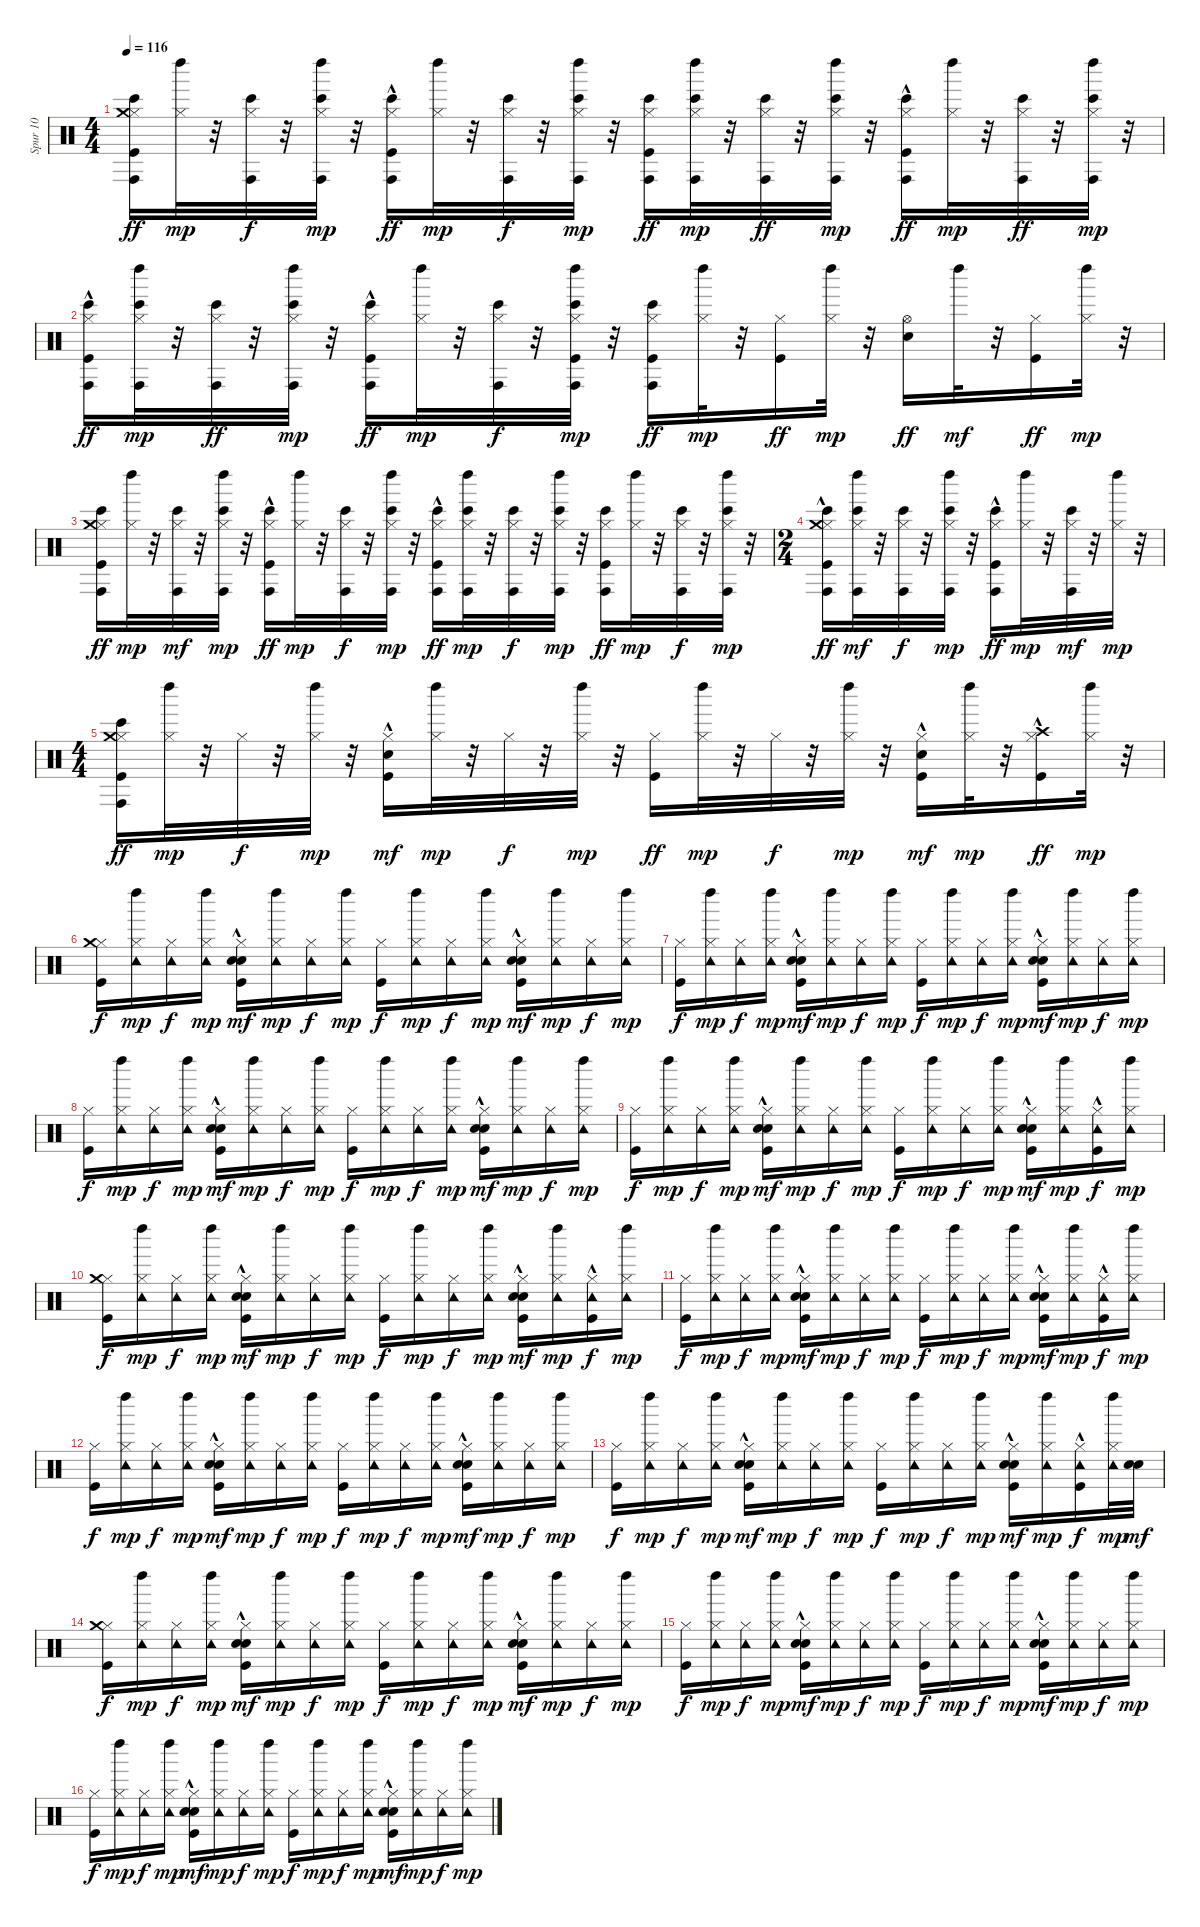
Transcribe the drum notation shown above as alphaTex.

\track ("Spur 10" "Spur 10") {instrument percussion}
\staff {score}
\articulation defaults
\ts (4 4)
\tempo 116
\clef neutral
\ks c
("Kick (hit)" "Conga high (hit)" "Hi-Hat (closed)" "Bongo High (hit)" "Crash medium (hit)").16{dy ff} ("Left Maraca (hit)" "Hi-Hat (closed)").32{dy mp} r.32 ("Conga high (hit)" "Bongo High (hit)" "Hi-Hat (closed)").32{dy f} r.32 ("Conga high (hit)" "Bongo High (hit)" "Left Maraca (hit)" "Hi-Hat (closed)").32{dy mp} r.32 ("Kick (hit)"{hac} "Hi-Hat (closed)" "Bongo High (hit)" "Conga high (hit)").16{dy ff} ("Left Maraca (hit)" "Hi-Hat (closed)").32{dy mp} r.32 ("Conga high (hit)" "Bongo High (hit)" "Hi-Hat (closed)").32{dy f} r.32 ("Conga high (hit)" "Bongo High (hit)" "Left Maraca (hit)" "Hi-Hat (closed)").32{dy mp} r.32 ("Kick (hit)" "Conga high (hit)" "Bongo High (hit)" "Hi-Hat (closed)").16{dy ff} ("Bongo High (hit)" "Conga high (hit)" "Left Maraca (hit)" "Hi-Hat (closed)").32{dy mp} r.32 ("Conga high (hit)" "Bongo High (hit)" "Hi-Hat (closed)").32{dy ff} r.32 ("Conga high (hit)" "Bongo High (hit)" "Left Maraca (hit)" "Hi-Hat (closed)").32{dy mp} r.32 ("Kick (hit)"{hac} "Bongo High (hit)" "Conga high (hit)" "Hi-Hat (closed)").16{dy ff} ("Left Maraca (hit)" "Hi-Hat (closed)").32{dy mp} r.32 ("Conga high (hit)" "Bongo High (hit)" "Hi-Hat (closed)").32{dy ff} r.32 ("Bongo High (hit)" "Conga high (hit)" "Left Maraca (hit)" "Hi-Hat (closed)").32{dy mp} r.32 |
("Bongo High (hit)" "Conga high (hit)" "Kick (hit)"{hac} "Hi-Hat (closed)").16{dy ff} ("Conga high (hit)" "Bongo High (hit)" "Left Maraca (hit)" "Hi-Hat (closed)").32{dy mp} r.32 ("Bongo High (hit)" "Conga high (hit)" "Hi-Hat (closed)").32{dy ff} r.32 ("Bongo High (hit)" "Conga high (hit)" "Left Maraca (hit)" "Hi-Hat (closed)").32{dy mp} r.32 ("Bongo High (hit)" "Conga high (hit)" "Kick (hit)"{hac} "Hi-Hat (closed)").16{dy ff} ("Left Maraca (hit)" "Hi-Hat (closed)").32{dy mp} r.32 ("Conga high (hit)" "Bongo High (hit)" "Hi-Hat (closed)").32{dy f} r.32 ("Kick (hit)" "Conga high (hit)" "Bongo High (hit)" "Left Maraca (hit)" "Hi-Hat (closed)").32{dy mp} r.32 ("Kick (hit)" "Hi-Hat (closed)" "Bongo High (hit)" "Conga high (hit)").16{dy ff} ("Left Maraca (hit)" "Hi-Hat (closed)").32{dy mp} r.32 ("Kick (hit)" "Hi-Hat (closed)").16{dy ff} ("Left Maraca (hit)" "Hi-Hat (closed)").32{dy mp} r.32 ("Snare (hit) 2" "Hi-Hat (open)").16{dy ff} "Left Maraca (hit)".32{dy mf} r.32 ("Kick (hit)" "Hi-Hat (closed)").16{dy ff} ("Left Maraca (hit)" "Hi-Hat (closed)").32{dy mp} r.32 |
("Kick (hit)" "Conga high (hit)" "Bongo High (hit)" "Hi-Hat (closed)" "Crash medium (hit)").16{dy ff} ("Left Maraca (hit)" "Hi-Hat (closed)").32{dy mp} r.32 ("Hi-Hat (closed)" "Conga high (hit)" "Bongo High (hit)").32{dy mf} r.32 ("Left Maraca (hit)" "Hi-Hat (closed)" "Bongo High (hit)" "Conga high (hit)").32{dy mp} r.32 ("Kick (hit)"{hac} "Hi-Hat (closed)" "Conga high (hit)" "Bongo High (hit)").16{dy ff} ("Left Maraca (hit)" "Hi-Hat (closed)").32{dy mp} r.32 ("Conga high (hit)" "Bongo High (hit)" "Hi-Hat (closed)").32{dy f} r.32 ("Conga high (hit)" "Bongo High (hit)" "Left Maraca (hit)" "Hi-Hat (closed)").32{dy mp} r.32 ("Bongo High (hit)" "Conga high (hit)" "Kick (hit)"{hac} "Hi-Hat (closed)").16{dy ff} ("Conga high (hit)" "Bongo High (hit)" "Left Maraca (hit)" "Hi-Hat (closed)").32{dy mp} r.32 ("Conga high (hit)" "Bongo High (hit)" "Hi-Hat (closed)").32{dy f} r.32 ("Bongo High (hit)" "Conga high (hit)" "Left Maraca (hit)" "Hi-Hat (closed)").32{dy mp} r.32 ("Kick (hit)" "Conga high (hit)" "Bongo High (hit)" "Hi-Hat (closed)").16{dy ff} ("Left Maraca (hit)" "Hi-Hat (closed)").32{dy mp} r.32 ("Hi-Hat (closed)" "Conga high (hit)" "Bongo High (hit)").32{dy f} r.32 ("Left Maraca (hit)" "Hi-Hat (closed)" "Conga high (hit)" "Bongo High (hit)").32{dy mp} r.32 |
\ts (2 4)
("Kick (hit)"{hac} "Hi-Hat (closed)" "Crash medium (hit)" "Conga high (hit)" "Bongo High (hit)").16{dy ff} ("Left Maraca (hit)" "Hi-Hat (closed)" "Conga high (hit)" "Bongo High (hit)").32{dy mf} r.32 ("Hi-Hat (closed)" "Bongo High (hit)" "Conga high (hit)").32{dy f} r.32 ("Left Maraca (hit)" "Hi-Hat (closed)" "Conga high (hit)" "Bongo High (hit)").32{dy mp} r.32 ("Kick (hit)"{hac} "Hi-Hat (closed)" "Conga high (hit)" "Bongo High (hit)").16{dy ff} ("Left Maraca (hit)" "Hi-Hat (closed)").32{dy mp} r.32 ("Hi-Hat (closed)" "Conga high (hit)" "Bongo High (hit)").32{dy mf} r.32 ("Left Maraca (hit)" "Hi-Hat (closed)").32{dy mp} r.32 |
\ts (4 4)
("Conga high (hit)" "Bongo High (hit)" "Kick (hit)" "Hi-Hat (closed)" "Crash medium (hit)").16{dy ff} ("Left Maraca (hit)" "Hi-Hat (closed)").32{dy mp} r.32 "Hi-Hat (closed)".32{dy f} r.32 ("Left Maraca (hit)" "Hi-Hat (closed)").32{dy mp} r.32 ("Kick (hit)"{hac} "Snare (hit) 2"{hac} "Hi-Hat (closed)").16{dy mf} ("Left Maraca (hit)" "Hi-Hat (closed)").32{dy mp} r.32 "Hi-Hat (closed)".32{dy f} r.32 ("Left Maraca (hit)" "Hi-Hat (closed)").32{dy mp} r.32 ("Kick (hit)" "Hi-Hat (closed)").16{dy ff} ("Left Maraca (hit)" "Hi-Hat (closed)").32{dy mp} r.32 "Hi-Hat (closed)".32{dy f} r.32 ("Left Maraca (hit)" "Hi-Hat (closed)").32{dy mp} r.32 ("Kick (hit)"{hac} "Snare (hit) 2"{hac} "Hi-Hat (closed)").16{dy mf} ("Left Maraca (hit)" "Hi-Hat (closed)").32{dy mp} r.32 ("Kick (hit)"{hac} "Hi-Hat (closed)" "Crash high (hit)").16{dy ff} ("Left Maraca (hit)" "Hi-Hat (closed)").32{dy mp} r.32 |
("Kick (hit)" "Hi-Hat (closed)" "Crash medium (hit)").16{dy f} ("Left Maraca (hit)" "Hi-Hat (closed)" "Tambourine (hit)").16{dy mp} ("Hi-Hat (closed)" "Tambourine (hit)").16{dy f} ("Left Maraca (hit)" "Hi-Hat (closed)" "Tambourine (hit)").16{dy mp} ("Kick (hit)"{hac} "Snare (hit) 2"{hac} "Hi-Hat (closed)" "Hand Clap (hit)"{hac}).16{dy mf} ("Left Maraca (hit)" "Hi-Hat (closed)" "Tambourine (hit)").16{dy mp} ("Hi-Hat (closed)" "Tambourine (hit)").16{dy f} ("Left Maraca (hit)" "Hi-Hat (closed)" "Tambourine (hit)").16{dy mp} ("Kick (hit)" "Hi-Hat (closed)").16{dy f} ("Left Maraca (hit)" "Hi-Hat (closed)" "Tambourine (hit)").16{dy mp} ("Hi-Hat (closed)" "Tambourine (hit)").16{dy f} ("Left Maraca (hit)" "Hi-Hat (closed)" "Tambourine (hit)").16{dy mp} ("Kick (hit)"{hac} "Snare (hit) 2"{hac} "Hi-Hat (closed)" "Hand Clap (hit)"{hac}).16{dy mf} ("Left Maraca (hit)" "Hi-Hat (closed)" "Tambourine (hit)").16{dy mp} ("Hi-Hat (closed)" "Tambourine (hit)").16{dy f} ("Left Maraca (hit)" "Hi-Hat (closed)" "Tambourine (hit)").16{dy mp} |
("Kick (hit)" "Hi-Hat (closed)").16{dy f} ("Left Maraca (hit)" "Hi-Hat (closed)" "Tambourine (hit)").16{dy mp} ("Hi-Hat (closed)" "Tambourine (hit)").16{dy f} ("Left Maraca (hit)" "Hi-Hat (closed)" "Tambourine (hit)").16{dy mp} ("Kick (hit)"{hac} "Snare (hit) 2"{hac} "Hi-Hat (closed)" "Hand Clap (hit)"{hac}).16{dy mf} ("Left Maraca (hit)" "Hi-Hat (closed)" "Tambourine (hit)").16{dy mp} ("Hi-Hat (closed)" "Tambourine (hit)").16{dy f} ("Left Maraca (hit)" "Hi-Hat (closed)" "Tambourine (hit)").16{dy mp} ("Kick (hit)" "Hi-Hat (closed)").16{dy f} ("Left Maraca (hit)" "Hi-Hat (closed)" "Tambourine (hit)").16{dy mp} ("Hi-Hat (closed)" "Tambourine (hit)").16{dy f} ("Left Maraca (hit)" "Hi-Hat (closed)" "Tambourine (hit)").16{dy mp} ("Kick (hit)"{hac} "Snare (hit) 2"{hac} "Hi-Hat (closed)" "Hand Clap (hit)"{hac}).16{dy mf} ("Left Maraca (hit)" "Hi-Hat (closed)" "Tambourine (hit)").16{dy mp} ("Hi-Hat (closed)" "Tambourine (hit)").16{dy f} ("Left Maraca (hit)" "Hi-Hat (closed)" "Tambourine (hit)").16{dy mp} |
("Kick (hit)" "Hi-Hat (closed)").16{dy f} ("Left Maraca (hit)" "Hi-Hat (closed)" "Tambourine (hit)").16{dy mp} ("Hi-Hat (closed)" "Tambourine (hit)").16{dy f} ("Left Maraca (hit)" "Hi-Hat (closed)" "Tambourine (hit)").16{dy mp} ("Kick (hit)"{hac} "Snare (hit) 2"{hac} "Hi-Hat (closed)" "Hand Clap (hit)"{hac}).16{dy mf} ("Left Maraca (hit)" "Hi-Hat (closed)" "Tambourine (hit)").16{dy mp} ("Hi-Hat (closed)" "Tambourine (hit)").16{dy f} ("Left Maraca (hit)" "Hi-Hat (closed)" "Tambourine (hit)").16{dy mp} ("Kick (hit)" "Hi-Hat (closed)").16{dy f} ("Left Maraca (hit)" "Hi-Hat (closed)" "Tambourine (hit)").16{dy mp} ("Hi-Hat (closed)" "Tambourine (hit)").16{dy f} ("Left Maraca (hit)" "Hi-Hat (closed)" "Tambourine (hit)").16{dy mp} ("Kick (hit)"{hac} "Snare (hit) 2"{hac} "Hi-Hat (closed)" "Hand Clap (hit)"{hac}).16{dy mf} ("Left Maraca (hit)" "Hi-Hat (closed)" "Tambourine (hit)").16{dy mp} ("Hi-Hat (closed)" "Tambourine (hit)").16{dy f} ("Left Maraca (hit)" "Hi-Hat (closed)" "Tambourine (hit)").16{dy mp} |
("Kick (hit)" "Hi-Hat (closed)").16{dy f} ("Left Maraca (hit)" "Hi-Hat (closed)" "Tambourine (hit)").16{dy mp} ("Hi-Hat (closed)" "Tambourine (hit)").16{dy f} ("Left Maraca (hit)" "Hi-Hat (closed)" "Tambourine (hit)").16{dy mp} ("Kick (hit)"{hac} "Snare (hit) 2"{hac} "Hi-Hat (closed)" "Hand Clap (hit)"{hac}).16{dy mf} ("Left Maraca (hit)" "Hi-Hat (closed)" "Tambourine (hit)").16{dy mp} ("Hi-Hat (closed)" "Tambourine (hit)").16{dy f} ("Left Maraca (hit)" "Hi-Hat (closed)" "Tambourine (hit)").16{dy mp} ("Kick (hit)" "Hi-Hat (closed)").16{dy f} ("Left Maraca (hit)" "Hi-Hat (closed)" "Tambourine (hit)").16{dy mp} ("Hi-Hat (closed)" "Tambourine (hit)").16{dy f} ("Left Maraca (hit)" "Hi-Hat (closed)" "Tambourine (hit)").16{dy mp} ("Kick (hit)"{hac} "Snare (hit) 2"{hac} "Hi-Hat (closed)" "Hand Clap (hit)"{hac}).16{dy mf} ("Left Maraca (hit)" "Hi-Hat (closed)" "Tambourine (hit)").16{dy mp} ("Kick (hit)"{hac} "Hi-Hat (closed)" "Tambourine (hit)").16{dy f} ("Left Maraca (hit)" "Hi-Hat (closed)" "Tambourine (hit)").16{dy mp} |
("Kick (hit)" "Hi-Hat (closed)" "Crash medium (hit)").16{dy f} ("Left Maraca (hit)" "Hi-Hat (closed)" "Tambourine (hit)").16{dy mp} ("Hi-Hat (closed)" "Tambourine (hit)").16{dy f} ("Left Maraca (hit)" "Hi-Hat (closed)" "Tambourine (hit)").16{dy mp} ("Kick (hit)"{hac} "Snare (hit) 2"{hac} "Hi-Hat (closed)" "Hand Clap (hit)"{hac}).16{dy mf} ("Left Maraca (hit)" "Hi-Hat (closed)" "Tambourine (hit)").16{dy mp} ("Hi-Hat (closed)" "Tambourine (hit)").16{dy f} ("Left Maraca (hit)" "Hi-Hat (closed)" "Tambourine (hit)").16{dy mp} ("Kick (hit)" "Hi-Hat (closed)").16{dy f} ("Left Maraca (hit)" "Hi-Hat (closed)" "Tambourine (hit)").16{dy mp} ("Hi-Hat (closed)" "Tambourine (hit)").16{dy f} ("Left Maraca (hit)" "Hi-Hat (closed)" "Tambourine (hit)").16{dy mp} ("Kick (hit)"{hac} "Snare (hit) 2"{hac} "Hi-Hat (closed)" "Hand Clap (hit)"{hac}).16{dy mf} ("Left Maraca (hit)" "Hi-Hat (closed)" "Tambourine (hit)").16{dy mp} ("Kick (hit)"{hac} "Hi-Hat (closed)" "Tambourine (hit)").16{dy f} ("Left Maraca (hit)" "Hi-Hat (closed)" "Tambourine (hit)").16{dy mp} |
("Kick (hit)" "Hi-Hat (closed)").16{dy f} ("Left Maraca (hit)" "Hi-Hat (closed)" "Tambourine (hit)").16{dy mp} ("Hi-Hat (closed)" "Tambourine (hit)").16{dy f} ("Left Maraca (hit)" "Hi-Hat (closed)" "Tambourine (hit)").16{dy mp} ("Kick (hit)"{hac} "Snare (hit) 2"{hac} "Hi-Hat (closed)" "Hand Clap (hit)"{hac}).16{dy mf} ("Left Maraca (hit)" "Hi-Hat (closed)" "Tambourine (hit)").16{dy mp} ("Hi-Hat (closed)" "Tambourine (hit)").16{dy f} ("Left Maraca (hit)" "Hi-Hat (closed)" "Tambourine (hit)").16{dy mp} ("Kick (hit)" "Hi-Hat (closed)").16{dy f} ("Left Maraca (hit)" "Hi-Hat (closed)" "Tambourine (hit)").16{dy mp} ("Hi-Hat (closed)" "Tambourine (hit)").16{dy f} ("Left Maraca (hit)" "Hi-Hat (closed)" "Tambourine (hit)").16{dy mp} ("Kick (hit)"{hac} "Snare (hit) 2"{hac} "Hi-Hat (closed)" "Hand Clap (hit)"{hac}).16{dy mf} ("Left Maraca (hit)" "Hi-Hat (closed)" "Tambourine (hit)").16{dy mp} ("Kick (hit)"{hac} "Hi-Hat (closed)" "Tambourine (hit)").16{dy f} ("Left Maraca (hit)" "Hi-Hat (closed)" "Tambourine (hit)").16{dy mp} |
("Kick (hit)" "Hi-Hat (closed)").16{dy f} ("Left Maraca (hit)" "Hi-Hat (closed)" "Tambourine (hit)").16{dy mp} ("Hi-Hat (closed)" "Tambourine (hit)").16{dy f} ("Left Maraca (hit)" "Hi-Hat (closed)" "Tambourine (hit)").16{dy mp} ("Kick (hit)"{hac} "Snare (hit) 2"{hac} "Hi-Hat (closed)" "Hand Clap (hit)"{hac}).16{dy mf} ("Left Maraca (hit)" "Hi-Hat (closed)" "Tambourine (hit)").16{dy mp} ("Hi-Hat (closed)" "Tambourine (hit)").16{dy f} ("Left Maraca (hit)" "Hi-Hat (closed)" "Tambourine (hit)").16{dy mp} ("Kick (hit)" "Hi-Hat (closed)").16{dy f} ("Left Maraca (hit)" "Hi-Hat (closed)" "Tambourine (hit)").16{dy mp} ("Hi-Hat (closed)" "Tambourine (hit)").16{dy f} ("Left Maraca (hit)" "Hi-Hat (closed)" "Tambourine (hit)").16{dy mp} ("Kick (hit)"{hac} "Snare (hit) 2"{hac} "Hi-Hat (closed)" "Hand Clap (hit)"{hac}).16{dy mf} ("Left Maraca (hit)" "Hi-Hat (closed)" "Tambourine (hit)").16{dy mp} ("Hi-Hat (closed)" "Tambourine (hit)").16{dy f} ("Left Maraca (hit)" "Hi-Hat (closed)" "Tambourine (hit)").16{dy mp} |
("Kick (hit)" "Hi-Hat (closed)").16{dy f} ("Left Maraca (hit)" "Hi-Hat (closed)" "Tambourine (hit)").16{dy mp} ("Hi-Hat (closed)" "Tambourine (hit)").16{dy f} ("Left Maraca (hit)" "Hi-Hat (closed)" "Tambourine (hit)").16{dy mp} ("Kick (hit)"{hac} "Snare (hit) 2"{hac} "Hi-Hat (closed)" "Hand Clap (hit)"{hac}).16{dy mf} ("Left Maraca (hit)" "Hi-Hat (closed)" "Tambourine (hit)").16{dy mp} ("Hi-Hat (closed)" "Tambourine (hit)").16{dy f} ("Left Maraca (hit)" "Hi-Hat (closed)" "Tambourine (hit)").16{dy mp} ("Kick (hit)" "Hi-Hat (closed)").16{dy f} ("Left Maraca (hit)" "Hi-Hat (closed)" "Tambourine (hit)").16{dy mp} ("Hi-Hat (closed)" "Tambourine (hit)").16{dy f} ("Left Maraca (hit)" "Hi-Hat (closed)" "Tambourine (hit)").16{dy mp} ("Kick (hit)"{hac} "Snare (hit) 2"{hac} "Hi-Hat (closed)" "Hand Clap (hit)"{hac}).16{dy mf} ("Left Maraca (hit)" "Hi-Hat (closed)" "Tambourine (hit)").16{dy mp} ("Kick (hit)"{hac} "Hi-Hat (closed)" "Tambourine (hit)").16{dy f} ("Left Maraca (hit)" "Hi-Hat (closed)" "Tambourine (hit)").32{dy mp} ("Snare (hit) 2" "Snare (hit) 2").32{dy mf} |
("Kick (hit)" "Hi-Hat (closed)" "Crash medium (hit)").16{dy f} ("Left Maraca (hit)" "Hi-Hat (closed)" "Tambourine (hit)").16{dy mp} ("Hi-Hat (closed)" "Tambourine (hit)").16{dy f} ("Left Maraca (hit)" "Hi-Hat (closed)" "Tambourine (hit)").16{dy mp} ("Kick (hit)"{hac} "Snare (hit) 2"{hac} "Hi-Hat (closed)" "Hand Clap (hit)"{hac}).16{dy mf} ("Left Maraca (hit)" "Hi-Hat (closed)" "Tambourine (hit)").16{dy mp} ("Hi-Hat (closed)" "Tambourine (hit)").16{dy f} ("Left Maraca (hit)" "Hi-Hat (closed)" "Tambourine (hit)").16{dy mp} ("Kick (hit)" "Hi-Hat (closed)").16{dy f} ("Left Maraca (hit)" "Hi-Hat (closed)" "Tambourine (hit)").16{dy mp} ("Hi-Hat (closed)" "Tambourine (hit)").16{dy f} ("Left Maraca (hit)" "Hi-Hat (closed)" "Tambourine (hit)").16{dy mp} ("Kick (hit)"{hac} "Snare (hit) 2"{hac} "Hi-Hat (closed)" "Hand Clap (hit)"{hac}).16{dy mf} ("Left Maraca (hit)" "Hi-Hat (closed)" "Tambourine (hit)").16{dy mp} ("Hi-Hat (closed)" "Tambourine (hit)").16{dy f} ("Left Maraca (hit)" "Hi-Hat (closed)" "Tambourine (hit)").16{dy mp} |
("Kick (hit)" "Hi-Hat (closed)").16{dy f} ("Left Maraca (hit)" "Hi-Hat (closed)" "Tambourine (hit)").16{dy mp} ("Hi-Hat (closed)" "Tambourine (hit)").16{dy f} ("Left Maraca (hit)" "Hi-Hat (closed)" "Tambourine (hit)").16{dy mp} ("Kick (hit)"{hac} "Snare (hit) 2"{hac} "Hi-Hat (closed)" "Hand Clap (hit)"{hac}).16{dy mf} ("Left Maraca (hit)" "Hi-Hat (closed)" "Tambourine (hit)").16{dy mp} ("Hi-Hat (closed)" "Tambourine (hit)").16{dy f} ("Left Maraca (hit)" "Hi-Hat (closed)" "Tambourine (hit)").16{dy mp} ("Kick (hit)" "Hi-Hat (closed)").16{dy f} ("Left Maraca (hit)" "Hi-Hat (closed)" "Tambourine (hit)").16{dy mp} ("Hi-Hat (closed)" "Tambourine (hit)").16{dy f} ("Left Maraca (hit)" "Hi-Hat (closed)" "Tambourine (hit)").16{dy mp} ("Kick (hit)"{hac} "Snare (hit) 2"{hac} "Hi-Hat (closed)" "Hand Clap (hit)"{hac}).16{dy mf} ("Left Maraca (hit)" "Hi-Hat (closed)" "Tambourine (hit)").16{dy mp} ("Hi-Hat (closed)" "Tambourine (hit)").16{dy f} ("Left Maraca (hit)" "Hi-Hat (closed)" "Tambourine (hit)").16{dy mp} |
("Kick (hit)" "Hi-Hat (closed)").16{dy f} ("Left Maraca (hit)" "Hi-Hat (closed)" "Tambourine (hit)").16{dy mp} ("Hi-Hat (closed)" "Tambourine (hit)").16{dy f} ("Left Maraca (hit)" "Hi-Hat (closed)" "Tambourine (hit)").16{dy mp} ("Kick (hit)"{hac} "Snare (hit) 2"{hac} "Hi-Hat (closed)" "Hand Clap (hit)"{hac}).16{dy mf} ("Left Maraca (hit)" "Hi-Hat (closed)" "Tambourine (hit)").16{dy mp} ("Hi-Hat (closed)" "Tambourine (hit)").16{dy f} ("Left Maraca (hit)" "Hi-Hat (closed)" "Tambourine (hit)").16{dy mp} ("Kick (hit)" "Hi-Hat (closed)").16{dy f} ("Left Maraca (hit)" "Hi-Hat (closed)" "Tambourine (hit)").16{dy mp} ("Hi-Hat (closed)" "Tambourine (hit)").16{dy f} ("Left Maraca (hit)" "Hi-Hat (closed)" "Tambourine (hit)").16{dy mp} ("Kick (hit)"{hac} "Snare (hit) 2"{hac} "Hi-Hat (closed)" "Hand Clap (hit)"{hac}).16{dy mf} ("Left Maraca (hit)" "Hi-Hat (closed)" "Tambourine (hit)").16{dy mp} ("Hi-Hat (closed)" "Tambourine (hit)").16{dy f} ("Left Maraca (hit)" "Hi-Hat (closed)" "Tambourine (hit)").16{dy mp}
